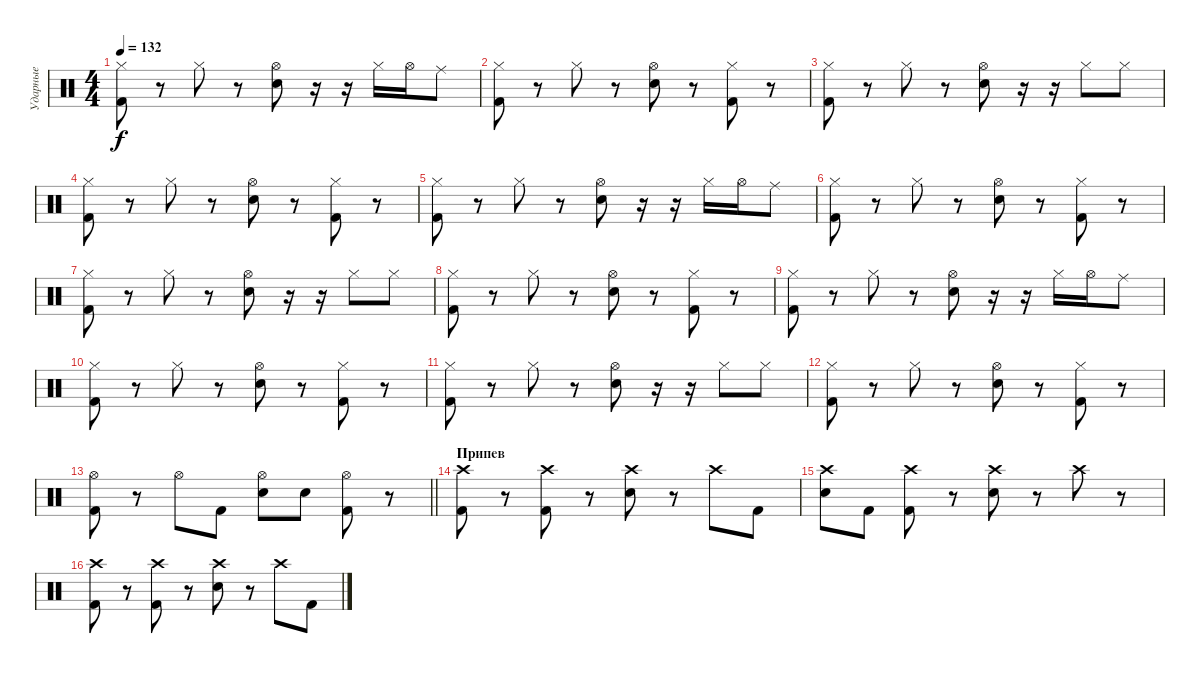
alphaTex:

\track ("Ударные" "Ударные") {instrument percussion}
\staff {score}
\articulation defaults
\ts (4 4)
\tempo 132
\clef neutral
\ks c
("Kick (hit) 2" "Hi-Hat (closed)").8{dy f} r.8 "Hi-Hat (closed)".8 r.8 ("Snare (hit) 2" "Hi-Hat (open)").8 r.16 r.16 "Hi-Hat (closed)".16 "Hi-Hat (open)".16 "Ride (middle)".8 |
("Kick (hit) 2" "Hi-Hat (closed)").8 r.8 "Hi-Hat (closed)".8 r.8 ("Snare (hit) 2" "Hi-Hat (open)").8 r.8 ("Kick (hit) 2" "Hi-Hat (closed)").8 r.8 |
("Kick (hit) 2" "Hi-Hat (closed)").8 r.8 "Hi-Hat (closed)".8 r.8 ("Snare (hit) 2" "Hi-Hat (open)").8 r.16 r.16 "Hi-Hat (closed)".8 "Hi-Hat (closed)".8 |
("Kick (hit) 2" "Hi-Hat (closed)").8 r.8 "Hi-Hat (closed)".8 r.8 ("Snare (hit) 2" "Hi-Hat (open)").8 r.8 ("Kick (hit) 2" "Hi-Hat (closed)").8 r.8 |
("Kick (hit) 2" "Hi-Hat (closed)").8 r.8 "Hi-Hat (closed)".8 r.8 ("Snare (hit) 2" "Hi-Hat (open)").8 r.16 r.16 "Hi-Hat (closed)".16 "Hi-Hat (open)".16 "Ride (middle)".8 |
("Kick (hit) 2" "Hi-Hat (closed)").8 r.8 "Hi-Hat (closed)".8 r.8 ("Snare (hit) 2" "Hi-Hat (open)").8 r.8 ("Kick (hit) 2" "Hi-Hat (closed)").8 r.8 |
("Kick (hit) 2" "Hi-Hat (closed)").8 r.8 "Hi-Hat (closed)".8 r.8 ("Snare (hit) 2" "Hi-Hat (open)").8 r.16 r.16 "Hi-Hat (closed)".8 "Hi-Hat (closed)".8 |
("Kick (hit) 2" "Hi-Hat (closed)").8 r.8 "Hi-Hat (closed)".8 r.8 ("Snare (hit) 2" "Hi-Hat (open)").8 r.8 ("Kick (hit) 2" "Hi-Hat (closed)").8 r.8 |
("Kick (hit) 2" "Hi-Hat (closed)").8 r.8 "Hi-Hat (closed)".8 r.8 ("Snare (hit) 2" "Hi-Hat (open)").8 r.16 r.16 "Hi-Hat (closed)".16 "Hi-Hat (open)".16 "Ride (middle)".8 |
("Kick (hit) 2" "Hi-Hat (closed)").8 r.8 "Hi-Hat (closed)".8 r.8 ("Snare (hit) 2" "Hi-Hat (open)").8 r.8 ("Kick (hit) 2" "Hi-Hat (closed)").8 r.8 |
("Kick (hit) 2" "Hi-Hat (closed)").8 r.8 "Hi-Hat (closed)".8 r.8 ("Snare (hit) 2" "Hi-Hat (open)").8 r.16 r.16 "Hi-Hat (closed)".8 "Hi-Hat (closed)".8 |
("Kick (hit) 2" "Hi-Hat (closed)").8 r.8 "Hi-Hat (closed)".8 r.8 ("Snare (hit) 2" "Hi-Hat (open)").8 r.8 ("Kick (hit) 2" "Hi-Hat (closed)").8 r.8 |
\barLineRight lightlight
("Kick (hit) 2" "Hi-Hat (open)").8 r.8 "Hi-Hat (open)".8 "Kick (hit) 2".8 ("Snare (hit) 2" "Hi-Hat (open)").8 "Snare (hit) 2".8 ("Kick (hit) 2" "Hi-Hat (open)").8 r.8 |
\section ("" "Припев")
("Kick (hit) 2" "Crash high (hit)").8 r.8 ("Kick (hit) 2" "Crash high (hit)").8 r.8 ("Snare (hit) 2" "Crash high (hit)").8 r.8 "Crash high (hit)".8 "Kick (hit) 2".8 |
("Snare (hit) 2" "Crash high (hit)").8 "Kick (hit) 2".8 ("Kick (hit) 2" "Crash high (hit)").8 r.8 ("Snare (hit) 2" "Crash high (hit)").8 r.8 "Crash high (hit)".8 r.8 |
("Kick (hit) 2" "Crash high (hit)").8 r.8 ("Kick (hit) 2" "Crash high (hit)").8 r.8 ("Snare (hit) 2" "Crash high (hit)").8 r.8 "Crash high (hit)".8 "Kick (hit) 2".8
